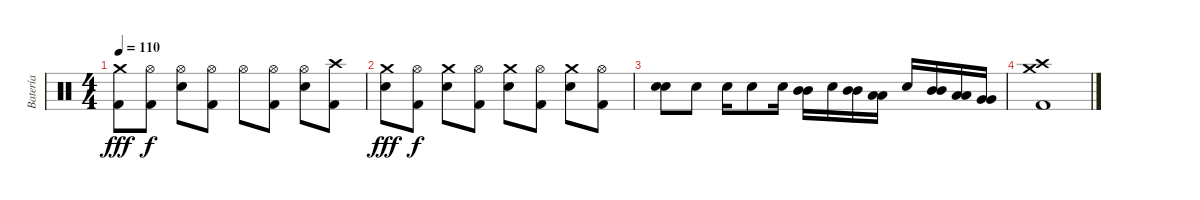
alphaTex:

\track ("Batería" "Batería") {instrument percussion}
\staff {score}
\articulation defaults
\ts (4 4)
\tempo 110
\clef neutral
\ks c
("Crash medium (hit)" "Kick (hit) 2").8{dy fff} ("Hi-Hat (open)" "Kick (hit) 2").8{dy f} ("Hi-Hat (open)" "Snare (hit) 2").8 ("Hi-Hat (open)" "Kick (hit) 2").8 "Hi-Hat (open)".8 ("Hi-Hat (open)" "Kick (hit) 2").8 ("Hi-Hat (open)" "Snare (hit) 2").8 ("Crash high (hit)" "Kick (hit) 2").8 |
("Crash medium (hit)" "Snare (hit) 2").8{dy fff} ("Hi-Hat (open)" "Kick (hit) 2").8{dy f} ("Crash medium (hit)" "Snare (hit) 2").8 ("Hi-Hat (open)" "Kick (hit) 2").8 ("Crash medium (hit)" "Snare (hit) 2").8 ("Hi-Hat (open)" "Kick (hit) 2").8 ("Crash medium (hit)" "Snare (hit) 2").8 ("Hi-Hat (open)" "Kick (hit) 2").8 |
("Snare (hit) 2" "Snare (hit) 2").8{bd 60} "Snare (hit) 2".8 "Snare (hit) 2".16 "Snare (hit) 2".8 "Snare (hit) 2".16 ("Mid Tom (hit)" "Mid Tom (hit)").16 "Snare (hit) 2".16 ("Mid Tom (hit)" "Mid Tom (hit)").16 ("Low Tom (hit)" "Low Tom (hit)").16 "Snare (hit) 2".16 ("Mid Tom (hit)" "Mid Tom (hit)").16 ("Low Tom (hit)" "Low Tom (hit)").16 ("Very Low Tom (hit)" "Very Low Tom (hit)").16 |
("Crash high (hit)" "Crash medium (hit)" "Kick (hit) 2").1
